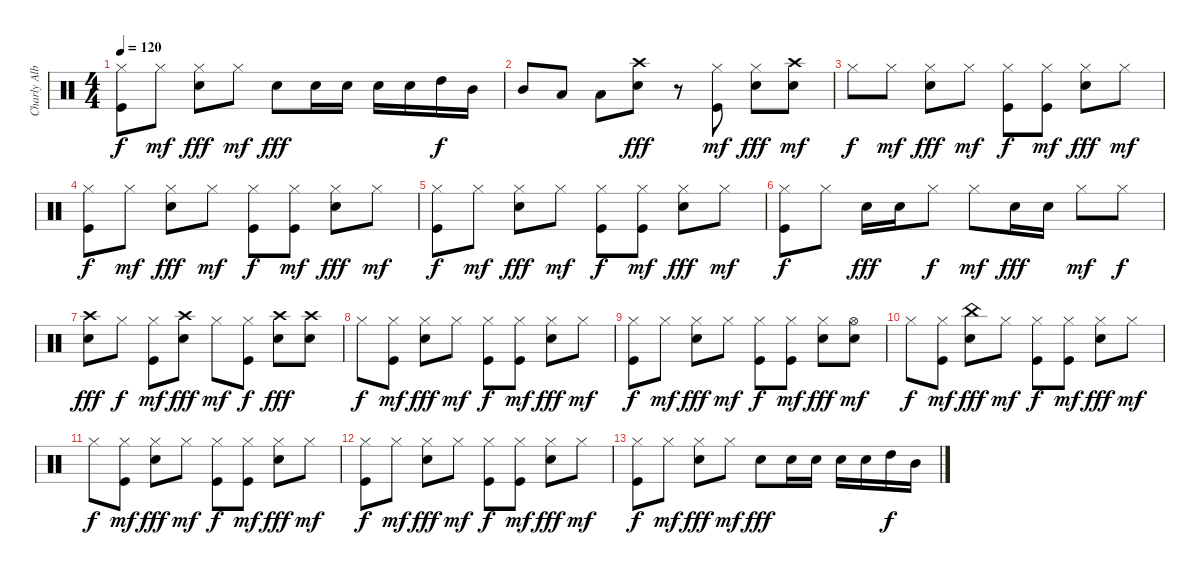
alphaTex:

\track ("Charly Alberti" "Charly Alb") {instrument percussion}
\staff {score}
\articulation defaults
\ts (4 4)
\tempo 120
\clef neutral
\ks c
("Kick (hit)" "Hi-Hat (closed)").8{dy f} "Hi-Hat (closed)".8{dy mf} ("Snare (hit) 2" "Hi-Hat (closed)").8{dy fff} "Hi-Hat (closed)".8{dy mf} "Snare (hit) 2".8{dy fff} "Snare (hit) 2".16 "Snare (hit) 2".16 "Snare (hit) 2".16 "Snare (hit) 2".16 "High Tom (hit)".16{dy f} "Mid Tom (hit)".16 |
"Mid Tom (hit)".8 "Low Tom (hit)".8 "Low Floor Tom (hit)".8 ("Snare (hit) 2" "Crash high (hit)").8{dy fff} r.8 ("Kick (hit)" "Hi-Hat (closed)").8{dy mf} ("Snare (hit) 2" "Hi-Hat (closed)").8{dy fff} ("Snare (hit) 2" "Crash high (hit)").8{dy mf} |
"Hi-Hat (closed)".8{dy f} "Hi-Hat (closed)".8{dy mf} ("Snare (hit) 2" "Hi-Hat (closed)").8{dy fff} "Hi-Hat (closed)".8{dy mf} ("Kick (hit)" "Hi-Hat (closed)").8{dy f} ("Kick (hit)" "Hi-Hat (closed)").8{dy mf} ("Snare (hit) 2" "Hi-Hat (closed)").8{dy fff} "Hi-Hat (closed)".8{dy mf} |
("Kick (hit)" "Hi-Hat (closed)").8{dy f} "Hi-Hat (closed)".8{dy mf} ("Snare (hit) 2" "Hi-Hat (closed)").8{dy fff} "Hi-Hat (closed)".8{dy mf} ("Kick (hit)" "Hi-Hat (closed)").8{dy f} ("Kick (hit)" "Hi-Hat (closed)").8{dy mf} ("Snare (hit) 2" "Hi-Hat (closed)").8{dy fff} "Hi-Hat (closed)".8{dy mf} |
("Kick (hit)" "Hi-Hat (closed)").8{dy f} "Hi-Hat (closed)".8{dy mf} ("Snare (hit) 2" "Hi-Hat (closed)").8{dy fff} "Hi-Hat (closed)".8{dy mf} ("Kick (hit)" "Hi-Hat (closed)").8{dy f} ("Kick (hit)" "Hi-Hat (closed)").8{dy mf} ("Snare (hit) 2" "Hi-Hat (closed)").8{dy fff} "Hi-Hat (closed)".8{dy mf} |
("Kick (hit)" "Hi-Hat (closed)").8{dy f} "Hi-Hat (closed)".8 "Snare (hit) 2".16{dy fff} "Snare (hit) 2".16 "Hi-Hat (closed)".8{dy f} "Hi-Hat (closed)".8{dy mf} "Snare (hit) 2".16{dy fff} "Snare (hit) 2".16 "Hi-Hat (closed)".8{dy mf} "Hi-Hat (closed)".8{dy f} |
("Snare (hit) 2" "Crash high (hit)").8{dy fff} "Hi-Hat (closed)".8{dy f} ("Kick (hit)" "Hi-Hat (closed)").8{dy mf} ("Snare (hit) 2" "Crash high (hit)").8{dy fff} "Hi-Hat (closed)".8{dy mf} ("Kick (hit)" "Hi-Hat (closed)").8{dy f} ("Snare (hit) 2" "Crash high (hit)").8{dy fff} ("Snare (hit) 2" "Crash high (hit)").8 |
"Hi-Hat (closed)".8{dy f} ("Kick (hit)" "Hi-Hat (closed)").8{dy mf} ("Snare (hit) 2" "Hi-Hat (closed)").8{dy fff} "Hi-Hat (closed)".8{dy mf} ("Kick (hit)" "Hi-Hat (closed)").8{dy f} ("Kick (hit)" "Hi-Hat (closed)").8{dy mf} ("Snare (hit) 2" "Hi-Hat (closed)").8{dy fff} "Hi-Hat (closed)".8{dy mf} |
("Kick (hit)" "Hi-Hat (closed)").8{dy f} "Hi-Hat (closed)".8{dy mf} ("Snare (hit) 2" "Hi-Hat (closed)").8{dy fff} "Hi-Hat (closed)".8{dy mf} ("Kick (hit)" "Hi-Hat (closed)").8{dy f} ("Kick (hit)" "Hi-Hat (closed)").8{dy mf} ("Snare (hit) 2" "Hi-Hat (closed)").8{dy fff} ("Snare (hit) 2" "Hi-Hat (open)").8{dy mf} |
"Hi-Hat (closed)".8{dy f volume 8} ("Kick (hit)" "Hi-Hat (closed)").8{dy mf} ("Snare (hit) 2" "China (hit)").8{dy fff} "Hi-Hat (closed)".8{dy mf} ("Kick (hit)" "Hi-Hat (closed)").8{dy f} ("Kick (hit)" "Hi-Hat (closed)").8{dy mf} ("Snare (hit) 2" "Hi-Hat (closed)").8{dy fff} "Hi-Hat (closed)".8{dy mf} |
"Hi-Hat (closed)".8{dy f} ("Kick (hit)" "Hi-Hat (closed)").8{dy mf} ("Snare (hit) 2" "Hi-Hat (closed)").8{dy fff} "Hi-Hat (closed)".8{dy mf} ("Kick (hit)" "Hi-Hat (closed)").8{dy f} ("Kick (hit)" "Hi-Hat (closed)").8{dy mf} ("Snare (hit) 2" "Hi-Hat (closed)").8{dy fff} "Hi-Hat (closed)".8{dy mf} |
("Kick (hit)" "Hi-Hat (closed)").8{dy f volume 0} "Hi-Hat (closed)".8{dy mf} ("Snare (hit) 2" "Hi-Hat (closed)").8{dy fff} "Hi-Hat (closed)".8{dy mf} ("Kick (hit)" "Hi-Hat (closed)").8{dy f} ("Kick (hit)" "Hi-Hat (closed)").8{dy mf} ("Snare (hit) 2" "Hi-Hat (closed)").8{dy fff} "Hi-Hat (closed)".8{dy mf} |
("Kick (hit)" "Hi-Hat (closed)").8{dy f} "Hi-Hat (closed)".8{dy mf} ("Snare (hit) 2" "Hi-Hat (closed)").8{dy fff} "Hi-Hat (closed)".8{dy mf} "Snare (hit) 2".8{dy fff} "Snare (hit) 2".16 "Snare (hit) 2".16 "Snare (hit) 2".16 "Snare (hit) 2".16 "High Tom (hit)".16{dy f} "Mid Tom (hit)".16
